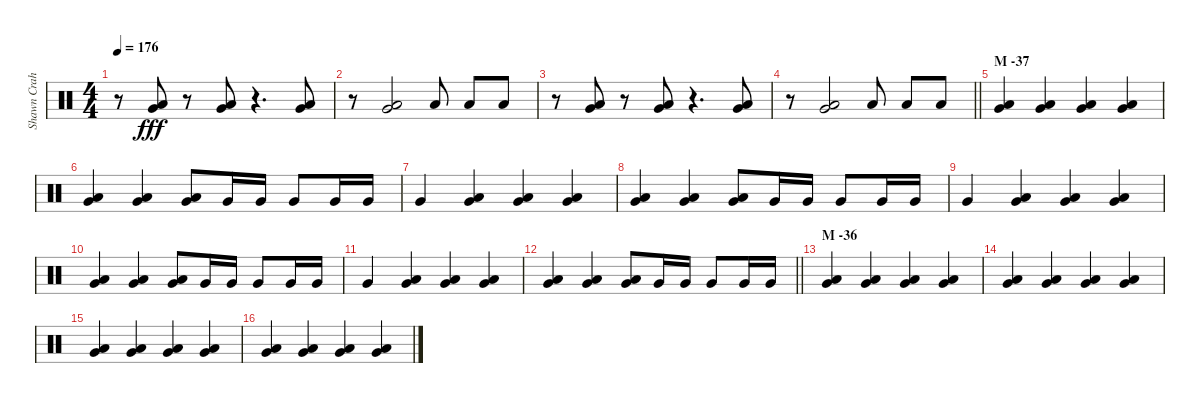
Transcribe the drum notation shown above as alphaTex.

\track ("Shawn Crahan" "Shawn Crah") {instrument percussion}
\staff {score}
\articulation defaults
\ts (4 4)
\tempo 176
\clef neutral
\ks c
r.8{dy fff} ("Very Low Tom (hit)" "Low Floor Tom (hit)").8 r.8 ("Very Low Tom (hit)" "Low Floor Tom (hit)").8 r.4{d} ("Very Low Tom (hit)" "Low Floor Tom (hit)").8 |
r.8 ("Very Low Tom (hit)" "Low Floor Tom (hit)").2 "Low Floor Tom (hit)".8 "Low Floor Tom (hit)".8 "Low Floor Tom (hit)".8 |
r.8 ("Very Low Tom (hit)" "Low Floor Tom (hit)").8 r.8 ("Very Low Tom (hit)" "Low Floor Tom (hit)").8 r.4{d} ("Very Low Tom (hit)" "Low Floor Tom (hit)").8 |
\barLineRight lightlight
r.8 ("Very Low Tom (hit)" "Low Floor Tom (hit)").2 "Low Floor Tom (hit)".8 "Low Floor Tom (hit)".8 "Low Floor Tom (hit)".8 |
\section ("" "M -37")
("Very Low Tom (hit)" "Low Floor Tom (hit)").4 ("Very Low Tom (hit)" "Low Floor Tom (hit)").4 ("Very Low Tom (hit)" "Low Floor Tom (hit)").4 ("Very Low Tom (hit)" "Low Floor Tom (hit)").4 |
("Very Low Tom (hit)" "Low Floor Tom (hit)").4 ("Very Low Tom (hit)" "Low Floor Tom (hit)").4 ("Very Low Tom (hit)" "Low Floor Tom (hit)").8 "Very Low Tom (hit)".16 "Very Low Tom (hit)".16 "Very Low Tom (hit)".8 "Very Low Tom (hit)".16 "Very Low Tom (hit)".16 |
"Very Low Tom (hit)".4 ("Very Low Tom (hit)" "Low Floor Tom (hit)").4 ("Very Low Tom (hit)" "Low Floor Tom (hit)").4 ("Very Low Tom (hit)" "Low Floor Tom (hit)").4 |
("Very Low Tom (hit)" "Low Floor Tom (hit)").4 ("Very Low Tom (hit)" "Low Floor Tom (hit)").4 ("Very Low Tom (hit)" "Low Floor Tom (hit)").8 "Very Low Tom (hit)".16 "Very Low Tom (hit)".16 "Very Low Tom (hit)".8 "Very Low Tom (hit)".16 "Very Low Tom (hit)".16 |
"Very Low Tom (hit)".4 ("Very Low Tom (hit)" "Low Floor Tom (hit)").4 ("Very Low Tom (hit)" "Low Floor Tom (hit)").4 ("Very Low Tom (hit)" "Low Floor Tom (hit)").4 |
("Very Low Tom (hit)" "Low Floor Tom (hit)").4 ("Very Low Tom (hit)" "Low Floor Tom (hit)").4 ("Very Low Tom (hit)" "Low Floor Tom (hit)").8 "Very Low Tom (hit)".16 "Very Low Tom (hit)".16 "Very Low Tom (hit)".8 "Very Low Tom (hit)".16 "Very Low Tom (hit)".16 |
"Very Low Tom (hit)".4 ("Very Low Tom (hit)" "Low Floor Tom (hit)").4 ("Very Low Tom (hit)" "Low Floor Tom (hit)").4 ("Very Low Tom (hit)" "Low Floor Tom (hit)").4 |
\barLineRight lightlight
("Very Low Tom (hit)" "Low Floor Tom (hit)").4 ("Very Low Tom (hit)" "Low Floor Tom (hit)").4 ("Very Low Tom (hit)" "Low Floor Tom (hit)").8 "Very Low Tom (hit)".16 "Very Low Tom (hit)".16 "Very Low Tom (hit)".8 "Very Low Tom (hit)".16 "Very Low Tom (hit)".16 |
\section ("" "M -36")
("Very Low Tom (hit)" "Low Floor Tom (hit)").4 ("Very Low Tom (hit)" "Low Floor Tom (hit)").4 ("Very Low Tom (hit)" "Low Floor Tom (hit)").4 ("Very Low Tom (hit)" "Low Floor Tom (hit)").4 |
("Very Low Tom (hit)" "Low Floor Tom (hit)").4 ("Very Low Tom (hit)" "Low Floor Tom (hit)").4 ("Very Low Tom (hit)" "Low Floor Tom (hit)").4 ("Very Low Tom (hit)" "Low Floor Tom (hit)").4 |
("Very Low Tom (hit)" "Low Floor Tom (hit)").4 ("Very Low Tom (hit)" "Low Floor Tom (hit)").4 ("Very Low Tom (hit)" "Low Floor Tom (hit)").4 ("Very Low Tom (hit)" "Low Floor Tom (hit)").4 |
("Very Low Tom (hit)" "Low Floor Tom (hit)").4 ("Very Low Tom (hit)" "Low Floor Tom (hit)").4 ("Very Low Tom (hit)" "Low Floor Tom (hit)").4 ("Very Low Tom (hit)" "Low Floor Tom (hit)").4
